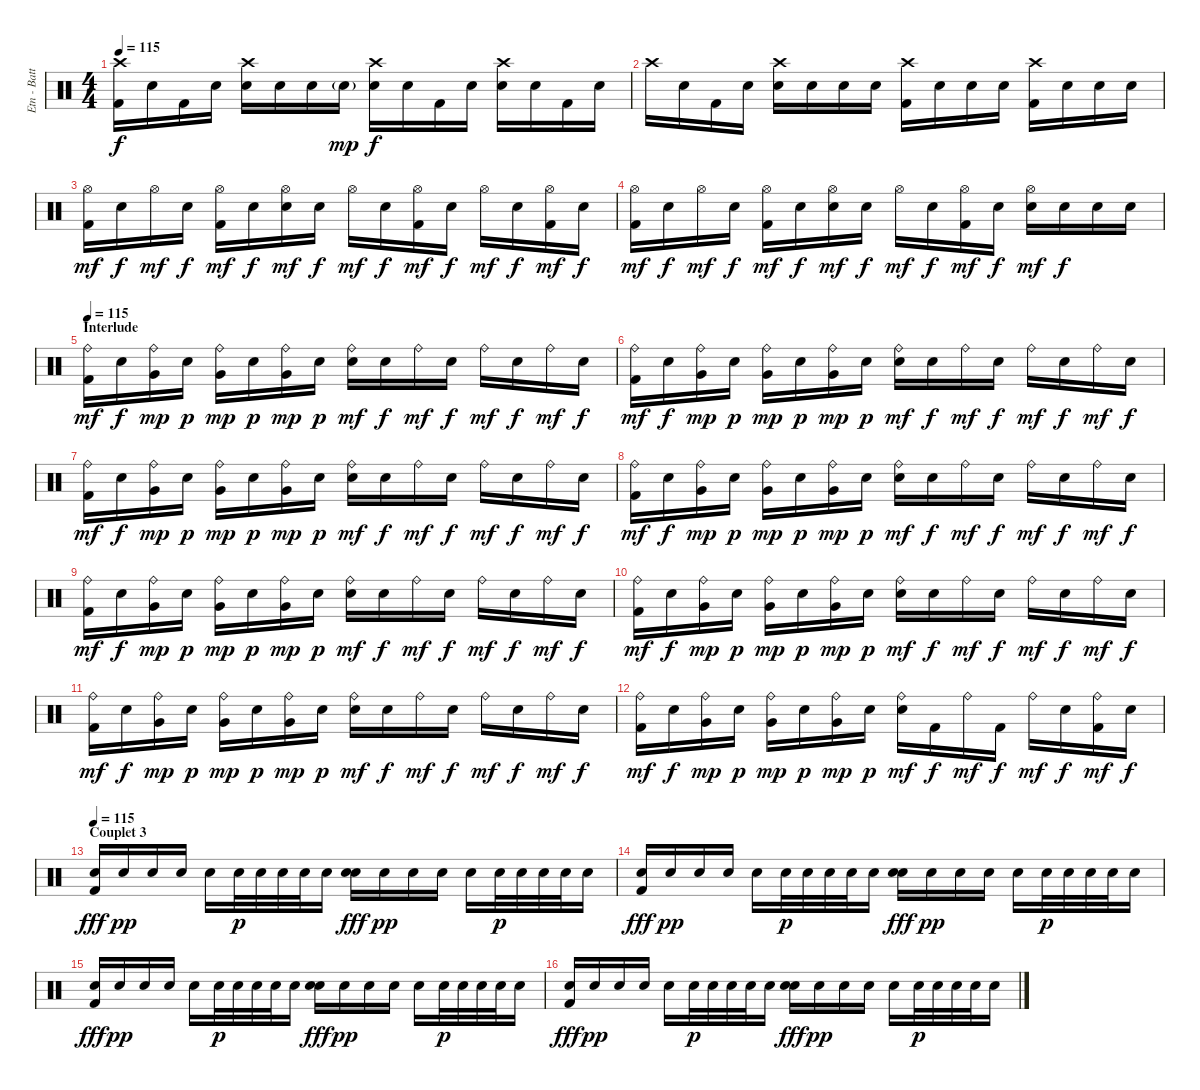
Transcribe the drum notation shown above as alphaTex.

\track ("Etn - Batterie" "Etn - Batt") {instrument percussion}
\staff {score}
\articulation defaults
\ts (4 4)
\tempo 115
\clef neutral
\ks c
("Crash high (hit)" "Kick (hit) 2").16{dy f} "Snare (hit)".16 "Kick (hit) 2".16 "Snare (hit)".16 ("Crash high (hit)" "Electric Snare (hit)").16 "Snare (hit)".16 "Snare (hit)".16 "Electric Snare (hit)"{g}.16{dy mp} ("Crash high (hit)" "Electric Snare (hit)").16{dy f} "Snare (hit)".16 "Kick (hit) 2".16 "Snare (hit)".16 ("Crash high (hit)" "Electric Snare (hit)").16 "Snare (hit)".16 "Kick (hit) 2".16 "Snare (hit)".16 |
"Crash high (hit)".16 "Snare (hit)".16 "Kick (hit) 2".16 "Snare (hit)".16 ("Crash high (hit)" "Electric Snare (hit)").16 "Snare (hit)".16 "Snare (hit)".16 "Snare (hit)".16 ("Crash high (hit)" "Kick (hit) 2").16 "Snare (hit)".16 "Electric Snare (hit)".16 "Snare (hit)".16 ("Crash high (hit)" "Kick (hit) 2").16 "Snare (hit)".16 "Electric Snare (hit)".16 "Snare (hit)".16 |
\section ("" "")
("Hi-Hat (open)" "Kick (hit) 2").16{dy mf} "Snare (hit)".16{dy f} "Hi-Hat (open)".16{dy mf} "Snare (hit)".16{dy f} ("Hi-Hat (open)" "Kick (hit) 2").16{dy mf} "Snare (hit)".16{dy f} ("Hi-Hat (open)" "Electric Snare (hit)").16{dy mf} "Snare (hit)".16{dy f} "Hi-Hat (open)".16{dy mf} "Snare (hit)".16{dy f} ("Hi-Hat (open)" "Kick (hit) 2").16{dy mf} "Snare (hit)".16{dy f} "Hi-Hat (open)".16{dy mf} "Snare (hit)".16{dy f} ("Hi-Hat (open)" "Kick (hit) 2").16{dy mf} "Snare (hit)".16{dy f} |
("Hi-Hat (open)" "Kick (hit) 2").16{dy mf} "Snare (hit)".16{dy f} "Hi-Hat (open)".16{dy mf} "Snare (hit)".16{dy f} ("Hi-Hat (open)" "Kick (hit) 2").16{dy mf} "Snare (hit)".16{dy f} ("Hi-Hat (open)" "Electric Snare (hit)").16{dy mf} "Snare (hit)".16{dy f} "Hi-Hat (open)".16{dy mf} "Snare (hit)".16{dy f} ("Hi-Hat (open)" "Kick (hit) 2").16{dy mf} "Snare (hit)".16{dy f} ("Hi-Hat (open)" "Electric Snare (hit)").16{dy mf} "Snare (hit)".16{dy f} "Snare (hit)".16 "Snare (hit)".16 |
\section ("" "Interlude")
\tempo 115
("Ride (bell)" "Kick (hit) 2").16{dy mf volume 16 balance 8} "Snare (hit)".16{dy f} ("Ride (bell)" "Very Low Tom (hit)").16{dy mp} "Electric Snare (hit)".16{dy p} ("Ride (bell)" "Very Low Tom (hit)").16{dy mp} "Electric Snare (hit)".16{dy p} ("Ride (bell)" "Very Low Tom (hit)").16{dy mp} "Electric Snare (hit)".16{dy p} ("Ride (bell)" "Electric Snare (hit)").16{dy mf} "Snare (hit)".16{dy f} "Ride (bell)".16{dy mf} "Snare (hit)".16{dy f} "Ride (bell)".16{dy mf} "Snare (hit)".16{dy f} "Ride (bell)".16{dy mf} "Snare (hit)".16{dy f} |
("Ride (bell)" "Kick (hit) 2").16{dy mf} "Snare (hit)".16{dy f} ("Ride (bell)" "Very Low Tom (hit)").16{dy mp} "Electric Snare (hit)".16{dy p} ("Ride (bell)" "Very Low Tom (hit)").16{dy mp} "Electric Snare (hit)".16{dy p} ("Ride (bell)" "Very Low Tom (hit)").16{dy mp} "Electric Snare (hit)".16{dy p} ("Ride (bell)" "Electric Snare (hit)").16{dy mf} "Snare (hit)".16{dy f} "Ride (bell)".16{dy mf} "Snare (hit)".16{dy f} "Ride (bell)".16{dy mf} "Snare (hit)".16{dy f} "Ride (bell)".16{dy mf} "Snare (hit)".16{dy f} |
("Ride (bell)" "Kick (hit) 2").16{dy mf} "Snare (hit)".16{dy f} ("Ride (bell)" "Very Low Tom (hit)").16{dy mp} "Electric Snare (hit)".16{dy p} ("Ride (bell)" "Very Low Tom (hit)").16{dy mp} "Electric Snare (hit)".16{dy p} ("Ride (bell)" "Very Low Tom (hit)").16{dy mp} "Electric Snare (hit)".16{dy p} ("Ride (bell)" "Electric Snare (hit)").16{dy mf} "Snare (hit)".16{dy f} "Ride (bell)".16{dy mf} "Snare (hit)".16{dy f} "Ride (bell)".16{dy mf} "Snare (hit)".16{dy f} "Ride (bell)".16{dy mf} "Snare (hit)".16{dy f} |
("Ride (bell)" "Kick (hit) 2").16{dy mf} "Snare (hit)".16{dy f} ("Ride (bell)" "Very Low Tom (hit)").16{dy mp} "Electric Snare (hit)".16{dy p} ("Ride (bell)" "Very Low Tom (hit)").16{dy mp} "Electric Snare (hit)".16{dy p} ("Ride (bell)" "Very Low Tom (hit)").16{dy mp} "Electric Snare (hit)".16{dy p} ("Ride (bell)" "Electric Snare (hit)").16{dy mf} "Snare (hit)".16{dy f} "Ride (bell)".16{dy mf} "Snare (hit)".16{dy f} "Ride (bell)".16{dy mf} "Snare (hit)".16{dy f} "Ride (bell)".16{dy mf} "Snare (hit)".16{dy f} |
("Ride (bell)" "Kick (hit) 2").16{dy mf} "Snare (hit)".16{dy f} ("Ride (bell)" "Very Low Tom (hit)").16{dy mp} "Electric Snare (hit)".16{dy p} ("Ride (bell)" "Very Low Tom (hit)").16{dy mp} "Electric Snare (hit)".16{dy p} ("Ride (bell)" "Very Low Tom (hit)").16{dy mp} "Electric Snare (hit)".16{dy p} ("Ride (bell)" "Electric Snare (hit)").16{dy mf} "Snare (hit)".16{dy f} "Ride (bell)".16{dy mf} "Snare (hit)".16{dy f} "Ride (bell)".16{dy mf} "Snare (hit)".16{dy f} "Ride (bell)".16{dy mf} "Snare (hit)".16{dy f} |
("Ride (bell)" "Kick (hit) 2").16{dy mf} "Snare (hit)".16{dy f} ("Ride (bell)" "Very Low Tom (hit)").16{dy mp} "Electric Snare (hit)".16{dy p} ("Ride (bell)" "Very Low Tom (hit)").16{dy mp} "Electric Snare (hit)".16{dy p} ("Ride (bell)" "Very Low Tom (hit)").16{dy mp} "Electric Snare (hit)".16{dy p} ("Ride (bell)" "Electric Snare (hit)").16{dy mf} "Snare (hit)".16{dy f} "Ride (bell)".16{dy mf} "Snare (hit)".16{dy f} "Ride (bell)".16{dy mf} "Snare (hit)".16{dy f} "Ride (bell)".16{dy mf} "Snare (hit)".16{dy f} |
("Ride (bell)" "Kick (hit) 2").16{dy mf} "Snare (hit)".16{dy f} ("Ride (bell)" "Very Low Tom (hit)").16{dy mp} "Electric Snare (hit)".16{dy p} ("Ride (bell)" "Very Low Tom (hit)").16{dy mp} "Electric Snare (hit)".16{dy p} ("Ride (bell)" "Very Low Tom (hit)").16{dy mp} "Electric Snare (hit)".16{dy p} ("Ride (bell)" "Electric Snare (hit)").16{dy mf} "Snare (hit)".16{dy f} "Ride (bell)".16{dy mf} "Snare (hit)".16{dy f} "Ride (bell)".16{dy mf} "Snare (hit)".16{dy f} "Ride (bell)".16{dy mf} "Snare (hit)".16{dy f} |
("Ride (bell)" "Kick (hit) 2").16{dy mf} "Snare (hit)".16{dy f} ("Ride (bell)" "Very Low Tom (hit)").16{dy mp} "Electric Snare (hit)".16{dy p} ("Ride (bell)" "Very Low Tom (hit)").16{dy mp} "Electric Snare (hit)".16{dy p} ("Ride (bell)" "Very Low Tom (hit)").16{dy mp} "Electric Snare (hit)".16{dy p} ("Ride (bell)" "Electric Snare (hit)").16{dy mf} "Kick (hit) 2".16{dy f} "Ride (bell)".16{dy mf} "Kick (hit) 2".16{dy f} "Ride (bell)".16{dy mf} "Electric Snare (hit)".16{dy f} ("Ride (bell)" "Kick (hit) 2").16{dy mf} "Snare (hit)".16{dy f} |
\section ("" "Couplet 3")
\tempo 115
("Electric Snare (hit)" "Kick (hit) 2").16{dy fff volume 16 balance 8} "Electric Snare (hit)".16{dy pp} "Electric Snare (hit)".16 "Electric Snare (hit)".16 "Electric Snare (hit)".16 "Electric Snare (hit)".32{dy p} "Electric Snare (hit)".32 "Electric Snare (hit)".32 "Electric Snare (hit)".32 "Electric Snare (hit)".16 ("Electric Snare (hit)" "Electric Snare (hit)").16{dy fff} "Electric Snare (hit)".16{dy pp} "Electric Snare (hit)".16 "Electric Snare (hit)".16 "Electric Snare (hit)".16 "Electric Snare (hit)".32{dy p} "Electric Snare (hit)".32 "Electric Snare (hit)".32 "Electric Snare (hit)".32 "Electric Snare (hit)".16 |
("Electric Snare (hit)" "Kick (hit) 2").16{dy fff} "Electric Snare (hit)".16{dy pp} "Electric Snare (hit)".16 "Electric Snare (hit)".16 "Electric Snare (hit)".16 "Electric Snare (hit)".32{dy p} "Electric Snare (hit)".32 "Electric Snare (hit)".32 "Electric Snare (hit)".32 "Electric Snare (hit)".16 ("Electric Snare (hit)" "Electric Snare (hit)").16{dy fff} "Electric Snare (hit)".16{dy pp} "Electric Snare (hit)".16 "Electric Snare (hit)".16 "Electric Snare (hit)".16 "Electric Snare (hit)".32{dy p} "Electric Snare (hit)".32 "Electric Snare (hit)".32 "Electric Snare (hit)".32 "Electric Snare (hit)".16 |
("Electric Snare (hit)" "Kick (hit) 2").16{dy fff} "Electric Snare (hit)".16{dy pp} "Electric Snare (hit)".16 "Electric Snare (hit)".16 "Electric Snare (hit)".16 "Electric Snare (hit)".32{dy p} "Electric Snare (hit)".32 "Electric Snare (hit)".32 "Electric Snare (hit)".32 "Electric Snare (hit)".16 ("Electric Snare (hit)" "Electric Snare (hit)").16{dy fff} "Electric Snare (hit)".16{dy pp} "Electric Snare (hit)".16 "Electric Snare (hit)".16 "Electric Snare (hit)".16 "Electric Snare (hit)".32{dy p} "Electric Snare (hit)".32 "Electric Snare (hit)".32 "Electric Snare (hit)".32 "Electric Snare (hit)".16 |
("Electric Snare (hit)" "Kick (hit) 2").16{dy fff} "Electric Snare (hit)".16{dy pp} "Electric Snare (hit)".16 "Electric Snare (hit)".16 "Electric Snare (hit)".16 "Electric Snare (hit)".32{dy p} "Electric Snare (hit)".32 "Electric Snare (hit)".32 "Electric Snare (hit)".32 "Electric Snare (hit)".16 ("Electric Snare (hit)" "Electric Snare (hit)").16{dy fff} "Electric Snare (hit)".16{dy pp} "Electric Snare (hit)".16 "Electric Snare (hit)".16 "Electric Snare (hit)".16 "Electric Snare (hit)".32{dy p} "Electric Snare (hit)".32 "Electric Snare (hit)".32 "Electric Snare (hit)".32 "Electric Snare (hit)".16
